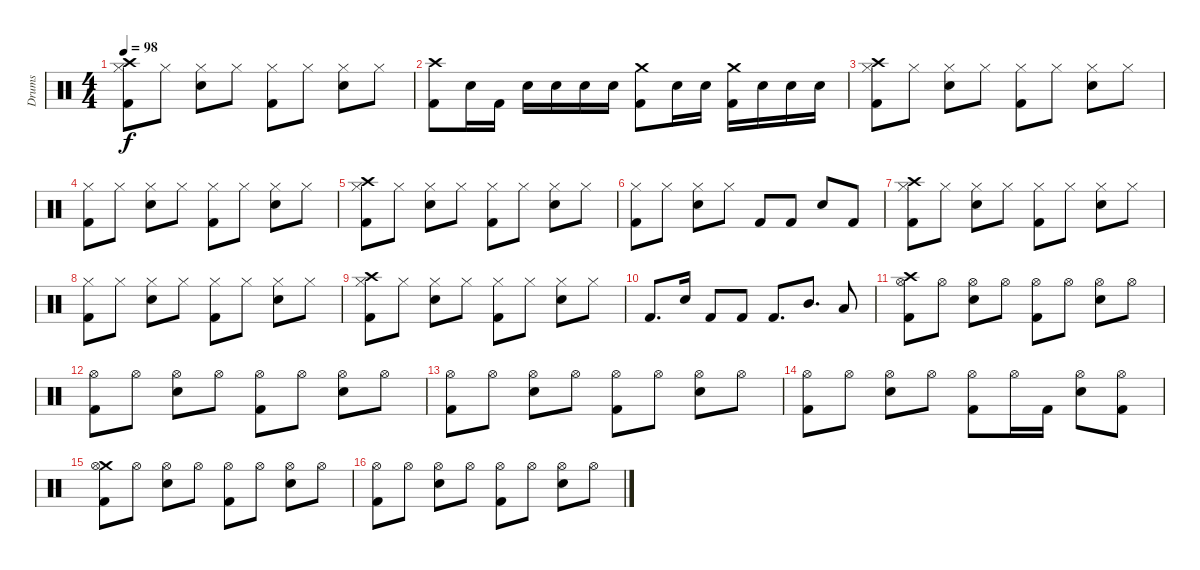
\track ("Drums" "Drums") {instrument percussion}
\staff {score}
\articulation defaults
\ts (4 4)
\tempo 98
\clef neutral
\ks c
("Hi-Hat (closed)" "Kick (hit) 2" "Crash high (hit)").8{dy f} "Hi-Hat (closed)".8 ("Hi-Hat (closed)" "Snare (hit) 2").8 "Hi-Hat (closed)".8 ("Hi-Hat (closed)" "Kick (hit) 2").8 "Hi-Hat (closed)".8 ("Hi-Hat (closed)" "Snare (hit) 2").8 "Hi-Hat (closed)".8 |
("Kick (hit) 2" "Crash high (hit)").8 "Snare (hit) 2".16 "Kick (hit) 2".16 "Snare (hit) 2".16 "Snare (hit) 2".16 "Snare (hit) 2".16 "Snare (hit) 2".16 ("Kick (hit) 2" "Crash medium (hit)").8 "Snare (hit) 2".16 "Snare (hit) 2".16 ("Kick (hit) 2" "Crash medium (hit)").16 "Snare (hit) 2".16 "Snare (hit) 2".16 "Snare (hit) 2".16 |
("Hi-Hat (closed)" "Kick (hit) 2" "Crash high (hit)").8 "Hi-Hat (closed)".8 ("Hi-Hat (closed)" "Snare (hit) 2").8 "Hi-Hat (closed)".8 ("Hi-Hat (closed)" "Kick (hit) 2").8 "Hi-Hat (closed)".8 ("Hi-Hat (closed)" "Snare (hit) 2").8 "Hi-Hat (closed)".8 |
("Hi-Hat (closed)" "Kick (hit) 2").8 "Hi-Hat (closed)".8 ("Hi-Hat (closed)" "Snare (hit) 2").8 "Hi-Hat (closed)".8 ("Hi-Hat (closed)" "Kick (hit) 2").8 "Hi-Hat (closed)".8 ("Hi-Hat (closed)" "Snare (hit) 2").8 "Hi-Hat (closed)".8 |
("Hi-Hat (closed)" "Kick (hit) 2" "Crash high (hit)").8 "Hi-Hat (closed)".8 ("Hi-Hat (closed)" "Snare (hit) 2").8 "Hi-Hat (closed)".8 ("Hi-Hat (closed)" "Kick (hit) 2").8 "Hi-Hat (closed)".8 ("Hi-Hat (closed)" "Snare (hit) 2").8 "Hi-Hat (closed)".8 |
("Hi-Hat (closed)" "Kick (hit) 2").8 "Hi-Hat (closed)".8 ("Hi-Hat (closed)" "Snare (hit) 2").8 "Hi-Hat (closed)".8 "Kick (hit) 2".8 "Kick (hit) 2".8 "Snare (hit) 2".8 "Kick (hit) 2".8 |
("Hi-Hat (closed)" "Kick (hit) 2" "Crash high (hit)").8 "Hi-Hat (closed)".8 ("Hi-Hat (closed)" "Snare (hit) 2").8 "Hi-Hat (closed)".8 ("Hi-Hat (closed)" "Kick (hit) 2").8 "Hi-Hat (closed)".8 ("Hi-Hat (closed)" "Snare (hit) 2").8 "Hi-Hat (closed)".8 |
("Hi-Hat (closed)" "Kick (hit) 2").8 "Hi-Hat (closed)".8 ("Hi-Hat (closed)" "Snare (hit) 2").8 "Hi-Hat (closed)".8 ("Hi-Hat (closed)" "Kick (hit) 2").8 "Hi-Hat (closed)".8 ("Hi-Hat (closed)" "Snare (hit) 2").8 "Hi-Hat (closed)".8 |
("Hi-Hat (closed)" "Kick (hit) 2" "Crash high (hit)").8 "Hi-Hat (closed)".8 ("Hi-Hat (closed)" "Snare (hit) 2").8 "Hi-Hat (closed)".8 ("Hi-Hat (closed)" "Kick (hit) 2").8 "Hi-Hat (closed)".8 ("Hi-Hat (closed)" "Snare (hit) 2").8 "Hi-Hat (closed)".8 |
"Kick (hit) 2".8{d} "Snare (hit) 2".16 "Kick (hit) 2".8 "Kick (hit) 2".8 "Kick (hit) 2".8{d} "Mid Tom (hit)".8{d} "Low Tom (hit)".8 |
("Crash high (hit)" "Hi-Hat (open)" "Kick (hit) 2").8 "Hi-Hat (open)".8 ("Hi-Hat (open)" "Snare (hit) 2").8 "Hi-Hat (open)".8 ("Hi-Hat (open)" "Kick (hit) 2").8 "Hi-Hat (open)".8 ("Hi-Hat (open)" "Snare (hit) 2").8 "Hi-Hat (open)".8 |
("Hi-Hat (open)" "Kick (hit) 2").8 "Hi-Hat (open)".8 ("Hi-Hat (open)" "Snare (hit) 2").8 "Hi-Hat (open)".8 ("Hi-Hat (open)" "Kick (hit) 2").8 "Hi-Hat (open)".8 ("Hi-Hat (open)" "Snare (hit) 2").8 "Hi-Hat (open)".8 |
("Hi-Hat (open)" "Kick (hit) 2").8 "Hi-Hat (open)".8 ("Hi-Hat (open)" "Snare (hit) 2").8 "Hi-Hat (open)".8 ("Hi-Hat (open)" "Kick (hit) 2").8 "Hi-Hat (open)".8 ("Hi-Hat (open)" "Snare (hit) 2").8 "Hi-Hat (open)".8 |
("Hi-Hat (open)" "Kick (hit) 2").8 "Hi-Hat (open)".8 ("Hi-Hat (open)" "Snare (hit) 2").8 "Hi-Hat (open)".8 ("Hi-Hat (open)" "Kick (hit) 2").8 "Hi-Hat (open)".16 "Kick (hit) 2".16 ("Hi-Hat (open)" "Snare (hit) 2").8 ("Hi-Hat (open)" "Kick (hit) 2").8 |
("Crash medium (hit)" "Hi-Hat (open)" "Kick (hit) 2").8 "Hi-Hat (open)".8 ("Hi-Hat (open)" "Snare (hit) 2").8 "Hi-Hat (open)".8 ("Hi-Hat (open)" "Kick (hit) 2").8 "Hi-Hat (open)".8 ("Hi-Hat (open)" "Snare (hit) 2").8 "Hi-Hat (open)".8 |
("Hi-Hat (open)" "Kick (hit) 2").8 "Hi-Hat (open)".8 ("Hi-Hat (open)" "Snare (hit) 2").8 "Hi-Hat (open)".8 ("Hi-Hat (open)" "Kick (hit) 2").8 "Hi-Hat (open)".8 ("Hi-Hat (open)" "Snare (hit) 2").8 "Hi-Hat (open)".8
